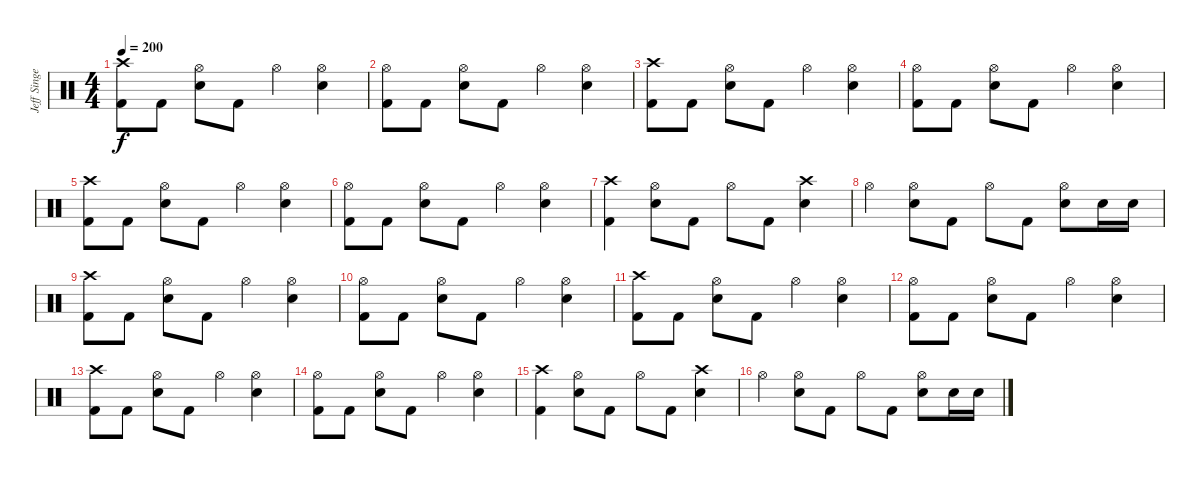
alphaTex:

\track ("Jeff Singer" "Jeff Singe") {instrument percussion}
\staff {score}
\articulation defaults
\ts (4 4)
\tempo 200
\clef neutral
\ks c
("Crash high (hit)" "Kick (hit) 2").8{dy f} "Kick (hit) 2".8 ("Hi-Hat (open)" "Snare (hit) 2").8 "Kick (hit) 2".8 "Hi-Hat (open)".4 ("Hi-Hat (open)" "Snare (hit) 2").4 |
("Hi-Hat (open)" "Kick (hit) 2").8 "Kick (hit) 2".8 ("Hi-Hat (open)" "Snare (hit) 2").8 "Kick (hit) 2".8 "Hi-Hat (open)".4 ("Hi-Hat (open)" "Snare (hit) 2").4 |
("Crash high (hit)" "Kick (hit) 2").8 "Kick (hit) 2".8 ("Hi-Hat (open)" "Snare (hit) 2").8 "Kick (hit) 2".8 "Hi-Hat (open)".4 ("Hi-Hat (open)" "Snare (hit) 2").4 |
("Hi-Hat (open)" "Kick (hit) 2").8 "Kick (hit) 2".8 ("Hi-Hat (open)" "Snare (hit) 2").8 "Kick (hit) 2".8 "Hi-Hat (open)".4 ("Hi-Hat (open)" "Snare (hit) 2").4 |
("Crash high (hit)" "Kick (hit) 2").8 "Kick (hit) 2".8 ("Hi-Hat (open)" "Snare (hit) 2").8 "Kick (hit) 2".8 "Hi-Hat (open)".4 ("Hi-Hat (open)" "Snare (hit) 2").4 |
("Hi-Hat (open)" "Kick (hit) 2").8 "Kick (hit) 2".8 ("Hi-Hat (open)" "Snare (hit) 2").8 "Kick (hit) 2".8 "Hi-Hat (open)".4 ("Hi-Hat (open)" "Snare (hit) 2").4 |
("Crash high (hit)" "Kick (hit) 2").4 ("Hi-Hat (open)" "Snare (hit) 2").8 "Kick (hit) 2".8 "Hi-Hat (open)".8 "Kick (hit) 2".8 ("Crash high (hit)" "Snare (hit) 2").4 |
"Hi-Hat (open)".4 ("Hi-Hat (open)" "Snare (hit) 2").8 "Kick (hit) 2".8 "Hi-Hat (open)".8 "Kick (hit) 2".8 ("Hi-Hat (open)" "Snare (hit) 2").8 "Snare (hit) 2".16 "Snare (hit) 2".16 |
("Crash high (hit)" "Kick (hit) 2").8 "Kick (hit) 2".8 ("Hi-Hat (open)" "Snare (hit) 2").8 "Kick (hit) 2".8 "Hi-Hat (open)".4 ("Hi-Hat (open)" "Snare (hit) 2").4 |
("Hi-Hat (open)" "Kick (hit) 2").8 "Kick (hit) 2".8 ("Hi-Hat (open)" "Snare (hit) 2").8 "Kick (hit) 2".8 "Hi-Hat (open)".4 ("Hi-Hat (open)" "Snare (hit) 2").4 |
("Crash high (hit)" "Kick (hit) 2").8 "Kick (hit) 2".8 ("Hi-Hat (open)" "Snare (hit) 2").8 "Kick (hit) 2".8 "Hi-Hat (open)".4 ("Hi-Hat (open)" "Snare (hit) 2").4 |
("Hi-Hat (open)" "Kick (hit) 2").8 "Kick (hit) 2".8 ("Hi-Hat (open)" "Snare (hit) 2").8 "Kick (hit) 2".8 "Hi-Hat (open)".4 ("Hi-Hat (open)" "Snare (hit) 2").4 |
("Crash high (hit)" "Kick (hit) 2").8 "Kick (hit) 2".8 ("Hi-Hat (open)" "Snare (hit) 2").8 "Kick (hit) 2".8 "Hi-Hat (open)".4 ("Hi-Hat (open)" "Snare (hit) 2").4 |
("Hi-Hat (open)" "Kick (hit) 2").8 "Kick (hit) 2".8 ("Hi-Hat (open)" "Snare (hit) 2").8 "Kick (hit) 2".8 "Hi-Hat (open)".4 ("Hi-Hat (open)" "Snare (hit) 2").4 |
("Crash high (hit)" "Kick (hit) 2").4 ("Hi-Hat (open)" "Snare (hit) 2").8 "Kick (hit) 2".8 "Hi-Hat (open)".8 "Kick (hit) 2".8 ("Crash high (hit)" "Snare (hit) 2").4 |
"Hi-Hat (open)".4 ("Hi-Hat (open)" "Snare (hit) 2").8 "Kick (hit) 2".8 "Hi-Hat (open)".8 "Kick (hit) 2".8 ("Hi-Hat (open)" "Snare (hit) 2").8 "Snare (hit) 2".16 "Snare (hit) 2".16
